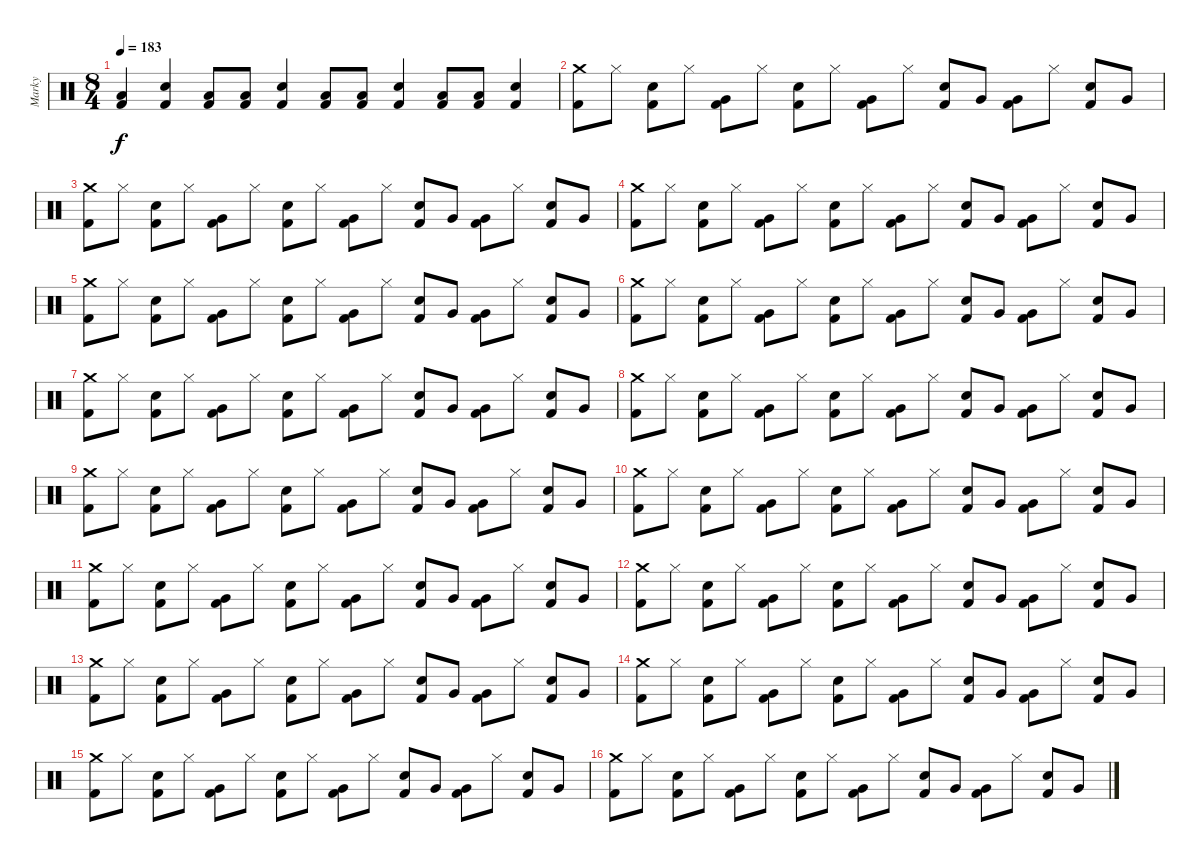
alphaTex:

\track ("Marky" "Marky") {instrument percussion}
\staff {score}
\articulation defaults
\ts (8 4)
\tempo 183
\clef neutral
\ks c
("Kick (hit) 2" "Low Floor Tom (hit)").4{dy f} ("Kick (hit) 2" "Snare (hit) 2").4 ("Kick (hit) 2" "Low Floor Tom (hit)").8 ("Kick (hit) 2" "Low Floor Tom (hit)").8 ("Kick (hit) 2" "Snare (hit) 2").4 ("Kick (hit) 2" "Low Floor Tom (hit)").8 ("Kick (hit) 2" "Low Floor Tom (hit)").8 ("Kick (hit) 2" "Snare (hit) 2").4 ("Kick (hit) 2" "Low Floor Tom (hit)").8 ("Kick (hit) 2" "Low Floor Tom (hit)").8 ("Kick (hit) 2" "Snare (hit) 2").4 |
("Kick (hit) 2" "Crash medium (hit)").8 "Hi-Hat (closed)".8 ("Kick (hit) 2" "Snare (hit) 2").8 "Hi-Hat (closed)".8 ("Kick (hit) 2" "Very Low Tom (hit)").8 "Hi-Hat (closed)".8 ("Kick (hit) 2" "Snare (hit) 2").8 "Hi-Hat (closed)".8 ("Kick (hit) 2" "Very Low Tom (hit)").8 "Hi-Hat (closed)".8 ("Kick (hit) 2" "Snare (hit) 2").8 "Very Low Tom (hit)".8 ("Kick (hit) 2" "Very Low Tom (hit)").8 "Hi-Hat (closed)".8 ("Kick (hit) 2" "Snare (hit) 2").8 "Very Low Tom (hit)".8 |
("Kick (hit) 2" "Crash medium (hit)").8 "Hi-Hat (closed)".8 ("Kick (hit) 2" "Snare (hit) 2").8 "Hi-Hat (closed)".8 ("Kick (hit) 2" "Very Low Tom (hit)").8 "Hi-Hat (closed)".8 ("Kick (hit) 2" "Snare (hit) 2").8 "Hi-Hat (closed)".8 ("Kick (hit) 2" "Very Low Tom (hit)").8 "Hi-Hat (closed)".8 ("Kick (hit) 2" "Snare (hit) 2").8 "Very Low Tom (hit)".8 ("Kick (hit) 2" "Very Low Tom (hit)").8 "Hi-Hat (closed)".8 ("Kick (hit) 2" "Snare (hit) 2").8 "Very Low Tom (hit)".8 |
("Kick (hit) 2" "Crash medium (hit)").8 "Hi-Hat (closed)".8 ("Kick (hit) 2" "Snare (hit) 2").8 "Hi-Hat (closed)".8 ("Kick (hit) 2" "Very Low Tom (hit)").8 "Hi-Hat (closed)".8 ("Kick (hit) 2" "Snare (hit) 2").8 "Hi-Hat (closed)".8 ("Kick (hit) 2" "Very Low Tom (hit)").8 "Hi-Hat (closed)".8 ("Kick (hit) 2" "Snare (hit) 2").8 "Very Low Tom (hit)".8 ("Kick (hit) 2" "Very Low Tom (hit)").8 "Hi-Hat (closed)".8 ("Kick (hit) 2" "Snare (hit) 2").8 "Very Low Tom (hit)".8 |
("Kick (hit) 2" "Crash medium (hit)").8 "Hi-Hat (closed)".8 ("Kick (hit) 2" "Snare (hit) 2").8 "Hi-Hat (closed)".8 ("Kick (hit) 2" "Very Low Tom (hit)").8 "Hi-Hat (closed)".8 ("Kick (hit) 2" "Snare (hit) 2").8 "Hi-Hat (closed)".8 ("Kick (hit) 2" "Very Low Tom (hit)").8 "Hi-Hat (closed)".8 ("Kick (hit) 2" "Snare (hit) 2").8 "Very Low Tom (hit)".8 ("Kick (hit) 2" "Very Low Tom (hit)").8 "Hi-Hat (closed)".8 ("Kick (hit) 2" "Snare (hit) 2").8 "Very Low Tom (hit)".8 |
("Kick (hit) 2" "Crash medium (hit)").8 "Hi-Hat (closed)".8 ("Kick (hit) 2" "Snare (hit) 2").8 "Hi-Hat (closed)".8 ("Kick (hit) 2" "Very Low Tom (hit)").8 "Hi-Hat (closed)".8 ("Kick (hit) 2" "Snare (hit) 2").8 "Hi-Hat (closed)".8 ("Kick (hit) 2" "Very Low Tom (hit)").8 "Hi-Hat (closed)".8 ("Kick (hit) 2" "Snare (hit) 2").8 "Very Low Tom (hit)".8 ("Kick (hit) 2" "Very Low Tom (hit)").8 "Hi-Hat (closed)".8 ("Kick (hit) 2" "Snare (hit) 2").8 "Very Low Tom (hit)".8 |
("Kick (hit) 2" "Crash medium (hit)").8 "Hi-Hat (closed)".8 ("Kick (hit) 2" "Snare (hit) 2").8 "Hi-Hat (closed)".8 ("Kick (hit) 2" "Very Low Tom (hit)").8 "Hi-Hat (closed)".8 ("Kick (hit) 2" "Snare (hit) 2").8 "Hi-Hat (closed)".8 ("Kick (hit) 2" "Very Low Tom (hit)").8 "Hi-Hat (closed)".8 ("Kick (hit) 2" "Snare (hit) 2").8 "Very Low Tom (hit)".8 ("Kick (hit) 2" "Very Low Tom (hit)").8 "Hi-Hat (closed)".8 ("Kick (hit) 2" "Snare (hit) 2").8 "Very Low Tom (hit)".8 |
("Kick (hit) 2" "Crash medium (hit)").8 "Hi-Hat (closed)".8 ("Kick (hit) 2" "Snare (hit) 2").8 "Hi-Hat (closed)".8 ("Kick (hit) 2" "Very Low Tom (hit)").8 "Hi-Hat (closed)".8 ("Kick (hit) 2" "Snare (hit) 2").8 "Hi-Hat (closed)".8 ("Kick (hit) 2" "Very Low Tom (hit)").8 "Hi-Hat (closed)".8 ("Kick (hit) 2" "Snare (hit) 2").8 "Very Low Tom (hit)".8 ("Kick (hit) 2" "Very Low Tom (hit)").8 "Hi-Hat (closed)".8 ("Kick (hit) 2" "Snare (hit) 2").8 "Very Low Tom (hit)".8 |
("Kick (hit) 2" "Crash medium (hit)").8 "Hi-Hat (closed)".8 ("Kick (hit) 2" "Snare (hit) 2").8 "Hi-Hat (closed)".8 ("Kick (hit) 2" "Very Low Tom (hit)").8 "Hi-Hat (closed)".8 ("Kick (hit) 2" "Snare (hit) 2").8 "Hi-Hat (closed)".8 ("Kick (hit) 2" "Very Low Tom (hit)").8 "Hi-Hat (closed)".8 ("Kick (hit) 2" "Snare (hit) 2").8 "Very Low Tom (hit)".8 ("Kick (hit) 2" "Very Low Tom (hit)").8 "Hi-Hat (closed)".8 ("Kick (hit) 2" "Snare (hit) 2").8 "Very Low Tom (hit)".8 |
("Kick (hit) 2" "Crash medium (hit)").8 "Hi-Hat (closed)".8 ("Kick (hit) 2" "Snare (hit) 2").8 "Hi-Hat (closed)".8 ("Kick (hit) 2" "Very Low Tom (hit)").8 "Hi-Hat (closed)".8 ("Kick (hit) 2" "Snare (hit) 2").8 "Hi-Hat (closed)".8 ("Kick (hit) 2" "Very Low Tom (hit)").8 "Hi-Hat (closed)".8 ("Kick (hit) 2" "Snare (hit) 2").8 "Very Low Tom (hit)".8 ("Kick (hit) 2" "Very Low Tom (hit)").8 "Hi-Hat (closed)".8 ("Kick (hit) 2" "Snare (hit) 2").8 "Very Low Tom (hit)".8 |
("Kick (hit) 2" "Crash medium (hit)").8 "Hi-Hat (closed)".8 ("Kick (hit) 2" "Snare (hit) 2").8 "Hi-Hat (closed)".8 ("Kick (hit) 2" "Very Low Tom (hit)").8 "Hi-Hat (closed)".8 ("Kick (hit) 2" "Snare (hit) 2").8 "Hi-Hat (closed)".8 ("Kick (hit) 2" "Very Low Tom (hit)").8 "Hi-Hat (closed)".8 ("Kick (hit) 2" "Snare (hit) 2").8 "Very Low Tom (hit)".8 ("Kick (hit) 2" "Very Low Tom (hit)").8 "Hi-Hat (closed)".8 ("Kick (hit) 2" "Snare (hit) 2").8 "Very Low Tom (hit)".8 |
("Kick (hit) 2" "Crash medium (hit)").8 "Hi-Hat (closed)".8 ("Kick (hit) 2" "Snare (hit) 2").8 "Hi-Hat (closed)".8 ("Kick (hit) 2" "Very Low Tom (hit)").8 "Hi-Hat (closed)".8 ("Kick (hit) 2" "Snare (hit) 2").8 "Hi-Hat (closed)".8 ("Kick (hit) 2" "Very Low Tom (hit)").8 "Hi-Hat (closed)".8 ("Kick (hit) 2" "Snare (hit) 2").8 "Very Low Tom (hit)".8 ("Kick (hit) 2" "Very Low Tom (hit)").8 "Hi-Hat (closed)".8 ("Kick (hit) 2" "Snare (hit) 2").8 "Very Low Tom (hit)".8 |
("Kick (hit) 2" "Crash medium (hit)").8 "Hi-Hat (closed)".8 ("Kick (hit) 2" "Snare (hit) 2").8 "Hi-Hat (closed)".8 ("Kick (hit) 2" "Very Low Tom (hit)").8 "Hi-Hat (closed)".8 ("Kick (hit) 2" "Snare (hit) 2").8 "Hi-Hat (closed)".8 ("Kick (hit) 2" "Very Low Tom (hit)").8 "Hi-Hat (closed)".8 ("Kick (hit) 2" "Snare (hit) 2").8 "Very Low Tom (hit)".8 ("Kick (hit) 2" "Very Low Tom (hit)").8 "Hi-Hat (closed)".8 ("Kick (hit) 2" "Snare (hit) 2").8 "Very Low Tom (hit)".8 |
("Kick (hit) 2" "Crash medium (hit)").8 "Hi-Hat (closed)".8 ("Kick (hit) 2" "Snare (hit) 2").8 "Hi-Hat (closed)".8 ("Kick (hit) 2" "Very Low Tom (hit)").8 "Hi-Hat (closed)".8 ("Kick (hit) 2" "Snare (hit) 2").8 "Hi-Hat (closed)".8 ("Kick (hit) 2" "Very Low Tom (hit)").8 "Hi-Hat (closed)".8 ("Kick (hit) 2" "Snare (hit) 2").8 "Very Low Tom (hit)".8 ("Kick (hit) 2" "Very Low Tom (hit)").8 "Hi-Hat (closed)".8 ("Kick (hit) 2" "Snare (hit) 2").8 "Very Low Tom (hit)".8 |
("Kick (hit) 2" "Crash medium (hit)").8 "Hi-Hat (closed)".8 ("Kick (hit) 2" "Snare (hit) 2").8 "Hi-Hat (closed)".8 ("Kick (hit) 2" "Very Low Tom (hit)").8 "Hi-Hat (closed)".8 ("Kick (hit) 2" "Snare (hit) 2").8 "Hi-Hat (closed)".8 ("Kick (hit) 2" "Very Low Tom (hit)").8 "Hi-Hat (closed)".8 ("Kick (hit) 2" "Snare (hit) 2").8 "Very Low Tom (hit)".8 ("Kick (hit) 2" "Very Low Tom (hit)").8 "Hi-Hat (closed)".8 ("Kick (hit) 2" "Snare (hit) 2").8 "Very Low Tom (hit)".8 |
("Kick (hit) 2" "Crash medium (hit)").8 "Hi-Hat (closed)".8 ("Kick (hit) 2" "Snare (hit) 2").8 "Hi-Hat (closed)".8 ("Kick (hit) 2" "Very Low Tom (hit)").8 "Hi-Hat (closed)".8 ("Kick (hit) 2" "Snare (hit) 2").8 "Hi-Hat (closed)".8 ("Kick (hit) 2" "Very Low Tom (hit)").8 "Hi-Hat (closed)".8 ("Kick (hit) 2" "Snare (hit) 2").8 "Very Low Tom (hit)".8 ("Kick (hit) 2" "Very Low Tom (hit)").8 "Hi-Hat (closed)".8 ("Kick (hit) 2" "Snare (hit) 2").8 "Very Low Tom (hit)".8
